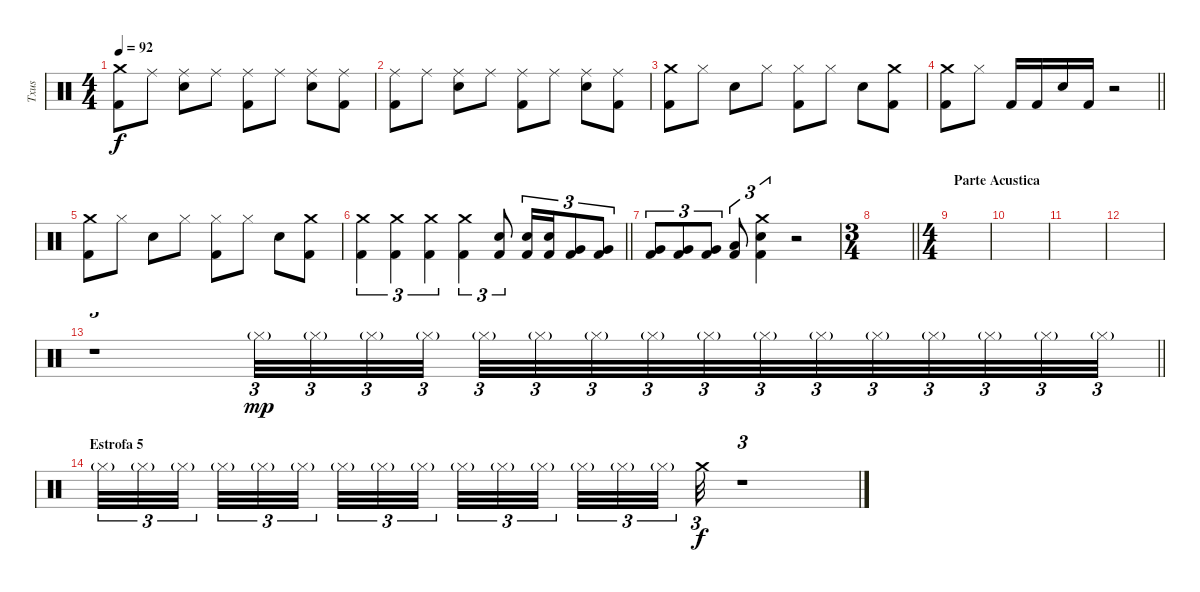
\track ("Txus" "Txus") {instrument percussion}
\staff {score}
\articulation defaults
\ts (4 4)
\tempo 92
\clef neutral
\ks c
("Crash medium (hit)" "Kick (hit) 2").8{dy f} "Ride (middle)".8 ("Ride (middle)" "Electric Snare (hit)").8 "Ride (middle)".8 ("Ride (middle)" "Kick (hit) 2").8 "Ride (middle)".8 ("Ride (middle)" "Electric Snare (hit)").8 ("Ride (middle)" "Kick (hit) 2").8 |
("Ride (middle)" "Kick (hit) 2").8 "Ride (middle)".8 ("Ride (middle)" "Electric Snare (hit)").8 "Ride (middle)".8 ("Ride (middle)" "Kick (hit) 2").8 "Ride (middle)".8 ("Ride (middle)" "Electric Snare (hit)").8 ("Ride (middle)" "Kick (hit) 2").8 |
("Crash medium (hit)" "Kick (hit) 2").8 "Hi-Hat (closed)".8 "Electric Snare (hit)".8 "Hi-Hat (closed)".8 ("Hi-Hat (closed)" "Kick (hit) 2").8 "Hi-Hat (closed)".8 "Electric Snare (hit)".8 ("Crash medium (hit)" "Kick (hit) 2").8 |
\barLineRight lightlight
("Crash medium (hit)" "Kick (hit) 2").8 "Hi-Hat (closed)".8 "Kick (hit) 2".16 "Kick (hit) 2".16 "Electric Snare (hit)".16 "Kick (hit) 2".16 r.2 |
("Crash medium (hit)" "Kick (hit) 2").8 "Hi-Hat (closed)".8 "Electric Snare (hit)".8 "Hi-Hat (closed)".8 ("Hi-Hat (closed)" "Kick (hit) 2").8 "Hi-Hat (closed)".8 "Electric Snare (hit)".8 ("Crash medium (hit)" "Kick (hit) 2").8 |
\barLineRight lightlight
("Crash medium (hit)" "Kick (hit) 2").4{tu (3 2)} ("Crash medium (hit)" "Kick (hit) 2").4{tu (3 2)} ("Crash medium (hit)" "Kick (hit) 2").4{tu (3 2)} ("Crash medium (hit)" "Kick (hit) 2").4{tu (3 2)} ("Electric Snare (hit)" "Kick (hit) 2").8{tu (3 2)} ("Electric Snare (hit)" "Kick (hit) 2").16{tu (3 2)} ("Electric Snare (hit)" "Kick (hit) 2").16{tu (3 2)} ("Very Low Tom (hit)" "Kick (hit) 2").8{tu (3 2)} ("Very Low Tom (hit)" "Kick (hit) 2").8{tu (3 2)} |
("Very Low Tom (hit)" "Kick (hit) 2").8{tu (3 2)} ("Very Low Tom (hit)" "Kick (hit) 2").8{tu (3 2)} ("Very Low Tom (hit)" "Kick (hit) 2").8{tu (3 2)} ("Low Floor Tom (hit)" "Kick (hit) 2").8{tu (3 2)} ("Crash medium (hit)" "Electric Snare (hit)" "Kick (hit) 2").4{tu (3 2)} r.2 |
\ts (3 4)
\barLineRight lightlight
|
\ts (4 4)
\section ("" "Parte Acustica")
|
|
|
|
\barLineRight lightlight
r.1{tu (3 2)} "Hi-Hat (closed)"{g}.32{tu (3 2) dy mp} "Hi-Hat (closed)"{g}.32{tu (3 2)} "Hi-Hat (closed)"{g}.32{tu (3 2)} "Hi-Hat (closed)"{g}.32{tu (3 2)} "Hi-Hat (closed)"{g}.32{tu (3 2)} "Hi-Hat (closed)"{g}.32{tu (3 2)} "Hi-Hat (closed)"{g}.32{tu (3 2)} "Hi-Hat (closed)"{g}.32{tu (3 2)} "Hi-Hat (closed)"{g}.32{tu (3 2)} "Hi-Hat (closed)"{g}.32{tu (3 2)} "Hi-Hat (closed)"{g}.32{tu (3 2)} "Hi-Hat (closed)"{g}.32{tu (3 2)} "Hi-Hat (closed)"{g}.32{tu (3 2)} "Hi-Hat (closed)"{g}.32{tu (3 2)} "Hi-Hat (closed)"{g}.32{tu (3 2)} "Hi-Hat (closed)"{g}.32{tu (3 2)} |
\section ("" "Estrofa 5")
"Hi-Hat (closed)"{g}.32{tu (3 2)} "Hi-Hat (closed)"{g}.32{tu (3 2)} "Hi-Hat (closed)"{g}.32{tu (3 2) beam splitsecondary} "Hi-Hat (closed)"{g}.32{tu (3 2)} "Hi-Hat (closed)"{g}.32{tu (3 2)} "Hi-Hat (closed)"{g}.32{tu (3 2) beam splitsecondary} "Hi-Hat (closed)"{g}.32{tu (3 2)} "Hi-Hat (closed)"{g}.32{tu (3 2)} "Hi-Hat (closed)"{g}.32{tu (3 2) beam splitsecondary} "Hi-Hat (closed)"{g}.32{tu (3 2)} "Hi-Hat (closed)"{g}.32{tu (3 2)} "Hi-Hat (closed)"{g}.32{tu (3 2)} "Hi-Hat (closed)"{g}.32{tu (3 2)} "Hi-Hat (closed)"{g}.32{tu (3 2)} "Hi-Hat (closed)"{g}.32{tu (3 2) beam splitsecondary} "Crash medium (hit)".32{tu (3 2) dy f} r.1{tu (3 2)}
